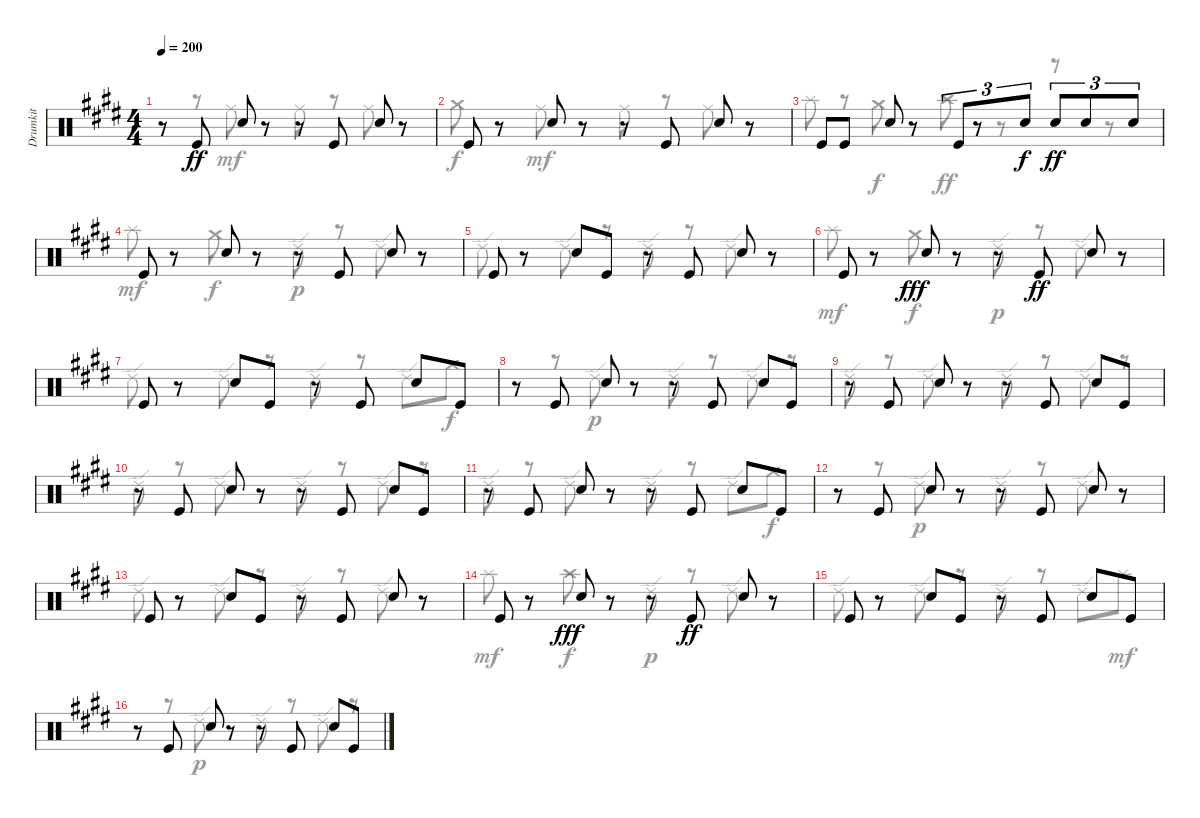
\track ("Drumkit" "Drumkit") {instrument percussion}
\staff {score}
\articulation defaults
\voice
\ts (4 4)
\tempo 200
\clef neutral
\ks c#minor
r.8{dy ff} "Kick (hit)".8 "Snare (hit) 2".8 r.8 r.8 "Kick (hit)".8 "Snare (hit) 2".8 r.8 |
"Kick (hit)".8 r.8 "Snare (hit) 2".8 r.8 r.8 "Kick (hit)".8 "Snare (hit) 2".8 r.8 |
"Kick (hit)".8 "Kick (hit)".8 "Snare (hit) 2".8 r.8 "Kick (hit)".8{tu (3 2)} r.8{tu (3 2)} "Snare (hit) 2".8{tu (3 2) dy f} "Snare (hit) 2".8{tu (3 2) dy ff} "Snare (hit) 2".8{tu (3 2)} "Snare (hit) 2".8{tu (3 2)} |
"Kick (hit)".8 r.8 "Snare (hit) 2".8 r.8 r.8 "Kick (hit)".8 "Snare (hit) 2".8 r.8 |
"Kick (hit)".8 r.8 "Snare (hit) 2".8 "Kick (hit)".8 r.8 "Kick (hit)".8 "Snare (hit) 2".8 r.8 |
"Kick (hit)".8 r.8 "Snare (hit) 2".8{dy fff} r.8 r.8 "Kick (hit)".8{dy ff} "Snare (hit) 2".8 r.8 |
"Kick (hit)".8 r.8 "Snare (hit) 2".8 "Kick (hit)".8 r.8 "Kick (hit)".8 "Snare (hit) 2".8 "Kick (hit)".8 |
r.8 "Kick (hit)".8 "Snare (hit) 2".8 r.8 r.8 "Kick (hit)".8 "Snare (hit) 2".8 "Kick (hit)".8 |
r.8 "Kick (hit)".8 "Snare (hit) 2".8 r.8 r.8 "Kick (hit)".8 "Snare (hit) 2".8 "Kick (hit)".8 |
r.8 "Kick (hit)".8 "Snare (hit) 2".8 r.8 r.8 "Kick (hit)".8 "Snare (hit) 2".8 "Kick (hit)".8 |
r.8 "Kick (hit)".8 "Snare (hit) 2".8 r.8 r.8 "Kick (hit)".8 "Snare (hit) 2".8 "Kick (hit)".8 |
r.8 "Kick (hit)".8 "Snare (hit) 2".8 r.8 r.8 "Kick (hit)".8 "Snare (hit) 2".8 r.8 |
"Kick (hit)".8 r.8 "Snare (hit) 2".8 "Kick (hit)".8 r.8 "Kick (hit)".8 "Snare (hit) 2".8 r.8 |
"Kick (hit)".8 r.8 "Snare (hit) 2".8{dy fff} r.8 r.8 "Kick (hit)".8{dy ff} "Snare (hit) 2".8 r.8 |
"Kick (hit)".8 r.8 "Snare (hit) 2".8 "Kick (hit)".8 r.8 "Kick (hit)".8 "Snare (hit) 2".8 "Kick (hit)".8 |
r.8 "Kick (hit)".8 "Snare (hit) 2".8 r.8 r.8 "Kick (hit)".8 "Snare (hit) 2".8 "Kick (hit)".8
\voice
\clef neutral
\ottava regular
\simile none
\ks c#minor
r.8{dy f} r.8 "Ride (middle)".8{dy mf} r.8 "Ride (middle)".8 r.8 "Ride (middle)".8 r.8 |
"Crash medium (hit)".8{dy f} r.8 "Ride (middle)".8{dy mf} r.8 "Ride (middle)".8 r.8 "Ride (middle)".8 r.8 |
"Splash (hit)".8 r.8 "Crash medium (hit)".8{dy f} r.8 "Crash high (hit)".8{dy ff} r.8 r.8 r.8 |
"Splash (hit)".8{dy mf} r.8 "Crash medium (hit)".8{dy f} r.8 "Ride (edge) 2".8{dy p} r.8 "Ride (edge) 2".8 r.8 |
"Ride (edge) 2".8 r.8 "Ride (edge) 2".8 r.8 "Ride (edge) 2".8 r.8 "Ride (edge) 2".8 r.8 |
"Splash (hit)".8{dy mf} r.8 "Crash medium (hit)".8{dy f} r.8 "Ride (edge) 2".8{dy p} r.8 "Ride (edge) 2".8 r.8 |
"Ride (edge) 2".8 r.8 "Ride (edge) 2".8 r.8 "Ride (edge) 2".8 r.8 "Ride (edge) 2".8 "Crash medium (hit)".8{dy f} |
r.8 r.8 "Ride (edge) 2".8{dy p} r.8 "Ride (edge) 2".8 r.8 "Ride (edge) 2".8 r.8 |
"Ride (edge) 2".8 r.8 "Ride (edge) 2".8 r.8 "Ride (edge) 2".8 r.8 "Ride (edge) 2".8 r.8 |
"Ride (edge) 2".8 r.8 "Ride (edge) 2".8 r.8 "Ride (edge) 2".8 r.8 "Ride (edge) 2".8 r.8 |
"Ride (edge) 2".8 r.8 "Ride (edge) 2".8 r.8 "Ride (edge) 2".8 r.8 "Ride (edge) 2".8 "Crash medium (hit)".8{dy f} |
r.8 r.8 "Ride (edge) 2".8{dy p} r.8 "Ride (edge) 2".8 r.8 "Ride (edge) 2".8 r.8 |
"Ride (edge) 2".8 r.8 "Ride (edge) 2".8 r.8 "Ride (edge) 2".8 r.8 "Ride (edge) 2".8 r.8 |
"Splash (hit)".8{dy mf} r.8 "Crash high (hit)".8{dy f} r.8 "Ride (edge) 2".8{dy p} r.8 "Ride (edge) 2".8 r.8 |
"Ride (edge) 2".8 r.8 "Ride (edge) 2".8 r.8 "Ride (edge) 2".8 r.8 "Ride (edge) 2".8 "Splash (hit)".8{dy mf} |
r.8 r.8 "Ride (edge) 2".8{dy p} r.8 "Ride (edge) 2".8 r.8 "Ride (edge) 2".8 r.8
